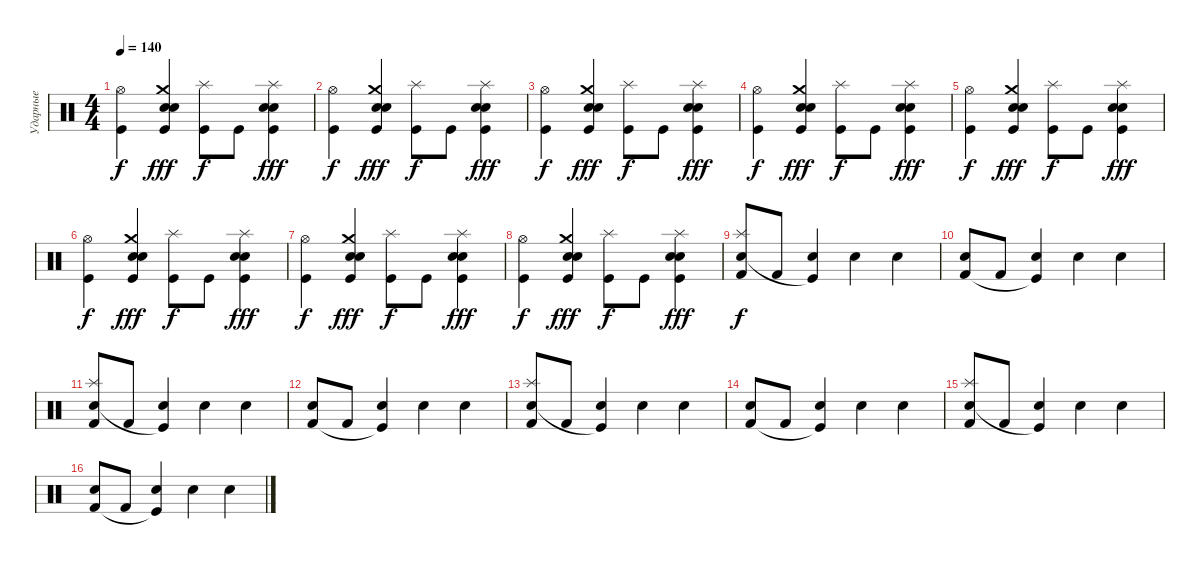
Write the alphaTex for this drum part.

\track ("Ударные" "Ударные") {instrument percussion}
\staff {score}
\articulation defaults
\ts (4 4)
\tempo 140
\clef neutral
\ks c
("Hi-Hat (open)" "Kick (hit)").4{dy f} ("Crash medium (hit)" "Electric Snare (hit)" "Snare (hit) 2" "Kick (hit)").4{dy fff} ("Splash (hit)" "Kick (hit)").8{dy f} "Kick (hit)".8 ("Splash (hit)" "Electric Snare (hit)" "Snare (hit) 2" "Kick (hit)").4{dy fff} |
("Hi-Hat (open)" "Kick (hit)").4{dy f} ("Crash medium (hit)" "Electric Snare (hit)" "Snare (hit) 2" "Kick (hit)").4{dy fff} ("Splash (hit)" "Kick (hit)").8{dy f} "Kick (hit)".8 ("Splash (hit)" "Electric Snare (hit)" "Snare (hit) 2" "Kick (hit)").4{dy fff} |
("Hi-Hat (open)" "Kick (hit)").4{dy f} ("Crash medium (hit)" "Electric Snare (hit)" "Snare (hit) 2" "Kick (hit)").4{dy fff} ("Splash (hit)" "Kick (hit)").8{dy f} "Kick (hit)".8 ("Splash (hit)" "Electric Snare (hit)" "Snare (hit) 2" "Kick (hit)").4{dy fff} |
("Hi-Hat (open)" "Kick (hit)").4{dy f} ("Crash medium (hit)" "Electric Snare (hit)" "Snare (hit) 2" "Kick (hit)").4{dy fff} ("Splash (hit)" "Kick (hit)").8{dy f} "Kick (hit)".8 ("Splash (hit)" "Electric Snare (hit)" "Snare (hit) 2" "Kick (hit)").4{dy fff} |
("Hi-Hat (open)" "Kick (hit)").4{dy f} ("Crash medium (hit)" "Electric Snare (hit)" "Snare (hit) 2" "Kick (hit)").4{dy fff} ("Splash (hit)" "Kick (hit)").8{dy f} "Kick (hit)".8 ("Splash (hit)" "Electric Snare (hit)" "Snare (hit) 2" "Kick (hit)").4{dy fff} |
("Hi-Hat (open)" "Kick (hit)").4{dy f} ("Crash medium (hit)" "Electric Snare (hit)" "Snare (hit) 2" "Kick (hit)").4{dy fff} ("Splash (hit)" "Kick (hit)").8{dy f} "Kick (hit)".8 ("Splash (hit)" "Electric Snare (hit)" "Snare (hit) 2" "Kick (hit)").4{dy fff} |
("Hi-Hat (open)" "Kick (hit)").4{dy f} ("Crash medium (hit)" "Electric Snare (hit)" "Snare (hit) 2" "Kick (hit)").4{dy fff} ("Splash (hit)" "Kick (hit)").8{dy f} "Kick (hit)".8 ("Splash (hit)" "Electric Snare (hit)" "Snare (hit) 2" "Kick (hit)").4{dy fff} |
("Hi-Hat (open)" "Kick (hit)").4{dy f} ("Crash medium (hit)" "Electric Snare (hit)" "Snare (hit) 2" "Kick (hit)").4{dy fff} ("Splash (hit)" "Kick (hit)").8{dy f} "Kick (hit)".8 ("Splash (hit)" "Electric Snare (hit)" "Snare (hit) 2" "Kick (hit)").4{dy fff} |
("Splash (hit)" "Electric Snare (hit)" "Kick (hit) 2").8{dy f} "Kick (hit) 2".8 ("Electric Snare (hit)" "Kick (hit)"{t}).4 "Electric Snare (hit)".4 "Electric Snare (hit)".4 |
("Electric Snare (hit)" "Kick (hit) 2").8 "Kick (hit) 2".8 ("Electric Snare (hit)" "Kick (hit)"{t}).4 "Electric Snare (hit)".4 "Electric Snare (hit)".4 |
("Splash (hit)" "Electric Snare (hit)" "Kick (hit) 2").8 "Kick (hit) 2".8 ("Electric Snare (hit)" "Kick (hit)"{t}).4 "Electric Snare (hit)".4 "Electric Snare (hit)".4 |
("Electric Snare (hit)" "Kick (hit) 2").8 "Kick (hit) 2".8 ("Electric Snare (hit)" "Kick (hit)"{t}).4 "Electric Snare (hit)".4 "Electric Snare (hit)".4 |
("Splash (hit)" "Electric Snare (hit)" "Kick (hit) 2").8 "Kick (hit) 2".8 ("Electric Snare (hit)" "Kick (hit)"{t}).4 "Electric Snare (hit)".4 "Electric Snare (hit)".4 |
("Electric Snare (hit)" "Kick (hit) 2").8 "Kick (hit) 2".8 ("Electric Snare (hit)" "Kick (hit)"{t}).4 "Electric Snare (hit)".4 "Electric Snare (hit)".4 |
("Splash (hit)" "Electric Snare (hit)" "Kick (hit) 2").8 "Kick (hit) 2".8 ("Electric Snare (hit)" "Kick (hit)"{t}).4 "Electric Snare (hit)".4 "Electric Snare (hit)".4 |
("Electric Snare (hit)" "Kick (hit) 2").8 "Kick (hit) 2".8 ("Electric Snare (hit)" "Kick (hit)"{t}).4 "Electric Snare (hit)".4 "Electric Snare (hit)".4
